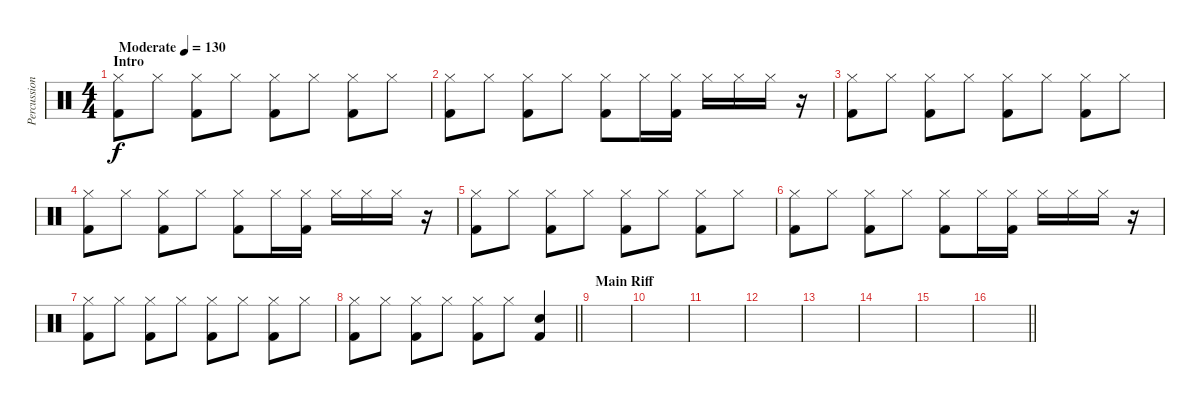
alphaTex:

\track ("Percussion" "Percussion") {instrument percussion}
\staff {score}
\articulation defaults
\ts (4 4)
\section ("" "Intro")
\tempo (130 "Moderate")
\clef neutral
\ks c
("Hi-Hat (closed)" "Kick (hit) 2").8{dy f} "Hi-Hat (closed)".8 ("Hi-Hat (closed)" "Kick (hit) 2").8 "Hi-Hat (closed)".8 ("Hi-Hat (closed)" "Kick (hit) 2").8 "Hi-Hat (closed)".8 ("Hi-Hat (closed)" "Kick (hit) 2").8 "Hi-Hat (closed)".8 |
("Hi-Hat (closed)" "Kick (hit) 2").8 "Hi-Hat (closed)".8 ("Hi-Hat (closed)" "Kick (hit) 2").8 "Hi-Hat (closed)".8 ("Hi-Hat (closed)" "Kick (hit) 2").8 "Hi-Hat (closed)".16 ("Hi-Hat (closed)" "Kick (hit) 2").16 "Hi-Hat (closed)".16 "Hi-Hat (closed)".16 "Hi-Hat (closed)".16 r.16 |
("Hi-Hat (closed)" "Kick (hit) 2").8 "Hi-Hat (closed)".8 ("Hi-Hat (closed)" "Kick (hit) 2").8 "Hi-Hat (closed)".8 ("Hi-Hat (closed)" "Kick (hit) 2").8 "Hi-Hat (closed)".8 ("Hi-Hat (closed)" "Kick (hit) 2").8 "Hi-Hat (closed)".8 |
("Hi-Hat (closed)" "Kick (hit) 2").8 "Hi-Hat (closed)".8 ("Hi-Hat (closed)" "Kick (hit) 2").8 "Hi-Hat (closed)".8 ("Hi-Hat (closed)" "Kick (hit) 2").8 "Hi-Hat (closed)".16 ("Hi-Hat (closed)" "Kick (hit) 2").16 "Hi-Hat (closed)".16 "Hi-Hat (closed)".16 "Hi-Hat (closed)".16 r.16 |
("Hi-Hat (closed)" "Kick (hit) 2").8 "Hi-Hat (closed)".8 ("Hi-Hat (closed)" "Kick (hit) 2").8 "Hi-Hat (closed)".8 ("Hi-Hat (closed)" "Kick (hit) 2").8 "Hi-Hat (closed)".8 ("Hi-Hat (closed)" "Kick (hit) 2").8 "Hi-Hat (closed)".8 |
("Hi-Hat (closed)" "Kick (hit) 2").8 "Hi-Hat (closed)".8 ("Hi-Hat (closed)" "Kick (hit) 2").8 "Hi-Hat (closed)".8 ("Hi-Hat (closed)" "Kick (hit) 2").8 "Hi-Hat (closed)".16 ("Hi-Hat (closed)" "Kick (hit) 2").16 "Hi-Hat (closed)".16 "Hi-Hat (closed)".16 "Hi-Hat (closed)".16 r.16 |
("Hi-Hat (closed)" "Kick (hit) 2").8 "Hi-Hat (closed)".8 ("Hi-Hat (closed)" "Kick (hit) 2").8 "Hi-Hat (closed)".8 ("Hi-Hat (closed)" "Kick (hit) 2").8 "Hi-Hat (closed)".8 ("Hi-Hat (closed)" "Kick (hit) 2").8 "Hi-Hat (closed)".8 |
\barLineRight lightlight
("Hi-Hat (closed)" "Kick (hit) 2").8 "Hi-Hat (closed)".8 ("Hi-Hat (closed)" "Kick (hit) 2").8 "Hi-Hat (closed)".8 ("Hi-Hat (closed)" "Kick (hit) 2").8 "Hi-Hat (closed)".8 ("Snare (hit) 2" "Kick (hit) 2").4 |
\section ("" "Main Riff")
|
|
|
|
|
|
|
\barLineRight lightlight
